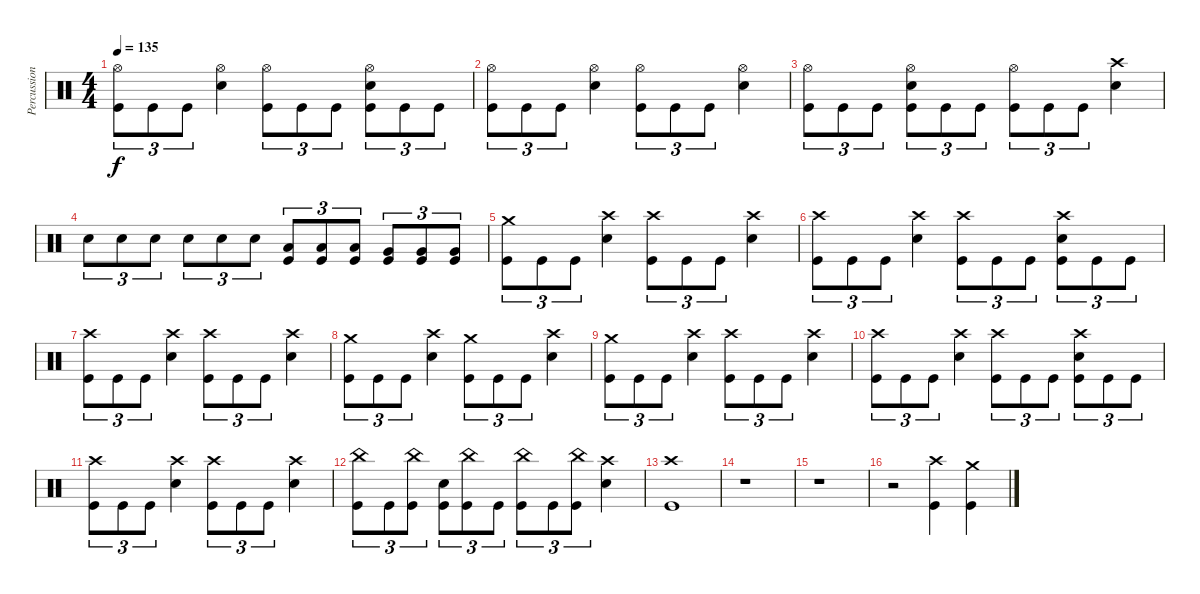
\track ("Percussions" "Percussion") {instrument percussion}
\staff {score}
\articulation defaults
\ts (4 4)
\tempo 135
\clef neutral
\ks c
("Hi-Hat (open)" "Kick (hit)").8{tu (3 2) dy f} "Kick (hit)".8{tu (3 2)} "Kick (hit)".8{tu (3 2)} ("Hi-Hat (open)" "Electric Snare (hit)").4 ("Hi-Hat (open)" "Kick (hit)").8{tu (3 2)} "Kick (hit)".8{tu (3 2)} "Kick (hit)".8{tu (3 2)} ("Hi-Hat (open)" "Electric Snare (hit)" "Kick (hit)").8{tu (3 2)} "Kick (hit)".8{tu (3 2)} "Kick (hit)".8{tu (3 2)} |
("Hi-Hat (open)" "Kick (hit)").8{tu (3 2)} "Kick (hit)".8{tu (3 2)} "Kick (hit)".8{tu (3 2)} ("Hi-Hat (open)" "Electric Snare (hit)").4 ("Hi-Hat (open)" "Kick (hit)").8{tu (3 2)} "Kick (hit)".8{tu (3 2)} "Kick (hit)".8{tu (3 2)} ("Hi-Hat (open)" "Electric Snare (hit)").4 |
("Hi-Hat (open)" "Kick (hit)").8{tu (3 2)} "Kick (hit)".8{tu (3 2)} "Kick (hit)".8{tu (3 2)} ("Hi-Hat (open)" "Electric Snare (hit)" "Kick (hit)").8{tu (3 2)} "Kick (hit)".8{tu (3 2)} "Kick (hit)".8{tu (3 2)} ("Hi-Hat (open)" "Kick (hit)").8{tu (3 2)} "Kick (hit)".8{tu (3 2)} "Kick (hit)".8{tu (3 2)} ("Crash high (hit)" "Electric Snare (hit)").4 |
"Electric Snare (hit)".8{tu (3 2)} "Electric Snare (hit)".8{tu (3 2)} "Electric Snare (hit)".8{tu (3 2)} "Electric Snare (hit)".8{tu (3 2)} "Electric Snare (hit)".8{tu (3 2)} "Electric Snare (hit)".8{tu (3 2)} ("Low Tom (hit)" "Kick (hit)").8{tu (3 2)} ("Low Tom (hit)" "Kick (hit)").8{tu (3 2)} ("Low Tom (hit)" "Kick (hit)").8{tu (3 2)} ("Very Low Tom (hit)" "Kick (hit)").8{tu (3 2)} ("Very Low Tom (hit)" "Kick (hit)").8{tu (3 2)} ("Very Low Tom (hit)" "Kick (hit)").8{tu (3 2)} |
("Crash medium (hit)" "Kick (hit)").8{tu (3 2)} "Kick (hit)".8{tu (3 2)} "Kick (hit)".8{tu (3 2)} ("Crash high (hit)" "Electric Snare (hit)").4 ("Crash high (hit)" "Kick (hit)").8{tu (3 2)} "Kick (hit)".8{tu (3 2)} "Kick (hit)".8{tu (3 2)} ("Crash high (hit)" "Electric Snare (hit)").4 |
("Crash high (hit)" "Kick (hit)").8{tu (3 2)} "Kick (hit)".8{tu (3 2)} "Kick (hit)".8{tu (3 2)} ("Crash high (hit)" "Electric Snare (hit)").4 ("Crash high (hit)" "Kick (hit)").8{tu (3 2)} "Kick (hit)".8{tu (3 2)} "Kick (hit)".8{tu (3 2)} ("Crash high (hit)" "Electric Snare (hit)" "Kick (hit)").8{tu (3 2)} "Kick (hit)".8{tu (3 2)} "Kick (hit)".8{tu (3 2)} |
("Crash high (hit)" "Kick (hit)").8{tu (3 2)} "Kick (hit)".8{tu (3 2)} "Kick (hit)".8{tu (3 2)} ("Crash high (hit)" "Electric Snare (hit)").4 ("Crash high (hit)" "Kick (hit)").8{tu (3 2)} "Kick (hit)".8{tu (3 2)} "Kick (hit)".8{tu (3 2)} ("Crash high (hit)" "Electric Snare (hit)").4 |
("Crash medium (hit)" "Kick (hit)").8{tu (3 2)} "Kick (hit)".8{tu (3 2)} "Kick (hit)".8{tu (3 2)} ("Crash high (hit)" "Electric Snare (hit)").4 ("Crash medium (hit)" "Kick (hit)").8{tu (3 2)} "Kick (hit)".8{tu (3 2)} "Kick (hit)".8{tu (3 2)} ("Crash high (hit)" "Electric Snare (hit)").4 |
("Crash medium (hit)" "Kick (hit)").8{tu (3 2)} "Kick (hit)".8{tu (3 2)} "Kick (hit)".8{tu (3 2)} ("Crash high (hit)" "Electric Snare (hit)").4 ("Crash high (hit)" "Kick (hit)").8{tu (3 2)} "Kick (hit)".8{tu (3 2)} "Kick (hit)".8{tu (3 2)} ("Crash high (hit)" "Electric Snare (hit)").4 |
("Crash high (hit)" "Kick (hit)").8{tu (3 2)} "Kick (hit)".8{tu (3 2)} "Kick (hit)".8{tu (3 2)} ("Crash high (hit)" "Electric Snare (hit)").4 ("Crash high (hit)" "Kick (hit)").8{tu (3 2)} "Kick (hit)".8{tu (3 2)} "Kick (hit)".8{tu (3 2)} ("Crash high (hit)" "Electric Snare (hit)" "Kick (hit)").8{tu (3 2)} "Kick (hit)".8{tu (3 2)} "Kick (hit)".8{tu (3 2)} |
("Crash high (hit)" "Kick (hit)").8{tu (3 2)} "Kick (hit)".8{tu (3 2)} "Kick (hit)".8{tu (3 2)} ("Crash high (hit)" "Electric Snare (hit)").4 ("Crash high (hit)" "Kick (hit)").8{tu (3 2)} "Kick (hit)".8{tu (3 2)} "Kick (hit)".8{tu (3 2)} ("Crash high (hit)" "Electric Snare (hit)").4 |
("China (hit)" "Kick (hit)").8{tu (3 2)} "Kick (hit)".8{tu (3 2)} ("China (hit)" "Kick (hit)").8{tu (3 2)} ("Electric Snare (hit)" "Kick (hit)").8{tu (3 2)} ("China (hit)" "Kick (hit)").8{tu (3 2)} "Kick (hit)".8{tu (3 2)} ("China (hit)" "Kick (hit)").8{tu (3 2)} "Kick (hit)".8{tu (3 2)} ("China (hit)" "Kick (hit)").8{tu (3 2)} ("Crash high (hit)" "Electric Snare (hit)").4 |
("Crash high (hit)" "Kick (hit)").1 |
r.1 |
r.1 |
r.2 ("Crash high (hit)" "Kick (hit)").4 ("Crash medium (hit)" "Kick (hit)").4
